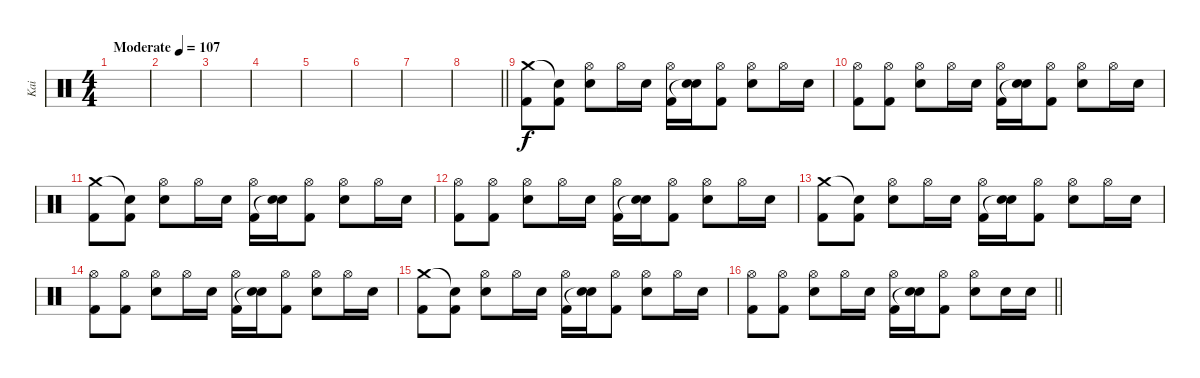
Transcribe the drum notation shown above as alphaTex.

\track ("Kai" "Kai") {instrument percussion}
\staff {score}
\articulation defaults
\ts (4 4)
\tempo (107 "Moderate")
\clef neutral
\ks c
|
|
|
|
|
|
|
\barLineRight lightlight
|
("Crash medium (hit)" "Kick (hit) 2").8 ("Snare (hit)"{t} "Kick (hit) 2").8 ("Hi-Hat (open)" "Snare (hit) 2").8 "Hi-Hat (open)".16 "Snare (hit) 2".16 ("Hi-Hat (open)" "Kick (hit) 2").16 ("Snare (hit) 2" "Snare (hit)"{t}).16 ("Hi-Hat (open)" "Kick (hit) 2").8 ("Hi-Hat (open)" "Snare (hit) 2").8 "Hi-Hat (open)".16 "Snare (hit) 2".16 |
("Hi-Hat (open)" "Kick (hit) 2").8 ("Hi-Hat (open)" "Kick (hit) 2").8 ("Hi-Hat (open)" "Snare (hit) 2").8 "Hi-Hat (open)".16 "Snare (hit) 2".16 ("Hi-Hat (open)" "Kick (hit) 2").16 ("Snare (hit) 2" "Snare (hit)"{t}).16 ("Hi-Hat (open)" "Kick (hit) 2").8 ("Hi-Hat (open)" "Snare (hit) 2").8 "Hi-Hat (open)".16 "Snare (hit) 2".16 |
("Crash medium (hit)" "Kick (hit) 2").8 ("Snare (hit)"{t} "Kick (hit) 2").8 ("Hi-Hat (open)" "Snare (hit) 2").8 "Hi-Hat (open)".16 "Snare (hit) 2".16 ("Hi-Hat (open)" "Kick (hit) 2").16 ("Snare (hit) 2" "Snare (hit)"{t}).16 ("Hi-Hat (open)" "Kick (hit) 2").8 ("Hi-Hat (open)" "Snare (hit) 2").8 "Hi-Hat (open)".16 "Snare (hit) 2".16 |
("Hi-Hat (open)" "Kick (hit) 2").8 ("Hi-Hat (open)" "Kick (hit) 2").8 ("Hi-Hat (open)" "Snare (hit) 2").8 "Hi-Hat (open)".16 "Snare (hit) 2".16 ("Hi-Hat (open)" "Kick (hit) 2").16 ("Snare (hit) 2" "Snare (hit)"{t}).16 ("Hi-Hat (open)" "Kick (hit) 2").8 ("Hi-Hat (open)" "Snare (hit) 2").8 "Hi-Hat (open)".16 "Snare (hit) 2".16 |
("Crash medium (hit)" "Kick (hit) 2").8 ("Snare (hit)"{t} "Kick (hit) 2").8 ("Hi-Hat (open)" "Snare (hit) 2").8 "Hi-Hat (open)".16 "Snare (hit) 2".16 ("Hi-Hat (open)" "Kick (hit) 2").16 ("Snare (hit) 2" "Snare (hit)"{t}).16 ("Hi-Hat (open)" "Kick (hit) 2").8 ("Hi-Hat (open)" "Snare (hit) 2").8 "Hi-Hat (open)".16 "Snare (hit) 2".16 |
("Hi-Hat (open)" "Kick (hit) 2").8 ("Hi-Hat (open)" "Kick (hit) 2").8 ("Hi-Hat (open)" "Snare (hit) 2").8 "Hi-Hat (open)".16 "Snare (hit) 2".16 ("Hi-Hat (open)" "Kick (hit) 2").16 ("Snare (hit) 2" "Snare (hit)"{t}).16 ("Hi-Hat (open)" "Kick (hit) 2").8 ("Hi-Hat (open)" "Snare (hit) 2").8 "Hi-Hat (open)".16 "Snare (hit) 2".16 |
("Crash medium (hit)" "Kick (hit) 2").8 ("Snare (hit)"{t} "Kick (hit) 2").8 ("Hi-Hat (open)" "Snare (hit) 2").8 "Hi-Hat (open)".16 "Snare (hit) 2".16 ("Hi-Hat (open)" "Kick (hit) 2").16 ("Snare (hit) 2" "Snare (hit)"{t}).16 ("Hi-Hat (open)" "Kick (hit) 2").8 ("Hi-Hat (open)" "Snare (hit) 2").8 "Hi-Hat (open)".16 "Snare (hit) 2".16 |
\barLineRight lightlight
("Hi-Hat (open)" "Kick (hit) 2").8 ("Hi-Hat (open)" "Kick (hit) 2").8 ("Hi-Hat (open)" "Snare (hit) 2").8 "Hi-Hat (open)".16 "Snare (hit) 2".16 ("Hi-Hat (open)" "Kick (hit) 2").16 ("Snare (hit) 2" "Snare (hit)"{t}).16 ("Hi-Hat (open)" "Kick (hit) 2").8 ("Hi-Hat (open)" "Snare (hit) 2").8 "Snare (hit) 2".16 "Snare (hit) 2".16
